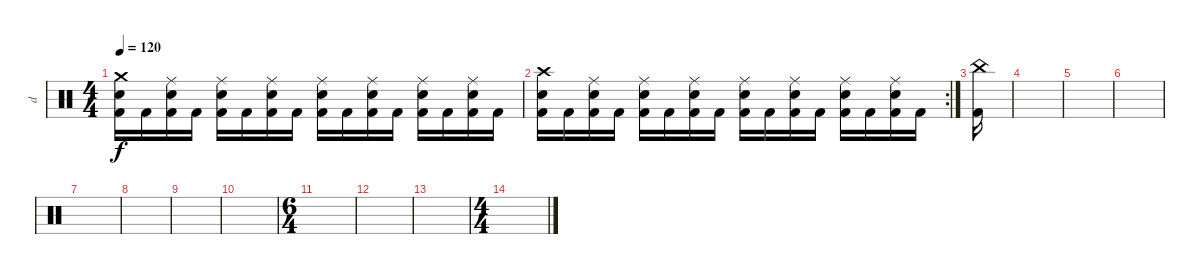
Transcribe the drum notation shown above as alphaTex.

\track ("d" "d") {instrument percussion}
\staff {score}
\articulation defaults
\ts (4 4)
\tempo 120
\clef neutral
\ks c
("Crash medium (hit)" "Electric Snare (hit)" "Kick (hit) 2").16{dy f} "Kick (hit) 2".16 ("Ride (middle)" "Electric Snare (hit)" "Kick (hit) 2").16 "Kick (hit) 2".16 ("Ride (middle)" "Electric Snare (hit)" "Kick (hit) 2").16 "Kick (hit) 2".16 ("Ride (middle)" "Electric Snare (hit)" "Kick (hit) 2").16 "Kick (hit) 2".16 ("Ride (middle)" "Electric Snare (hit)" "Kick (hit) 2").16 "Kick (hit) 2".16 ("Ride (middle)" "Electric Snare (hit)" "Kick (hit) 2").16 "Kick (hit) 2".16 ("Ride (middle)" "Electric Snare (hit)" "Kick (hit) 2").16 "Kick (hit) 2".16 ("Ride (middle)" "Electric Snare (hit)" "Kick (hit) 2").16 "Kick (hit) 2".16 |
\rc 2
("Crash high (hit)" "Electric Snare (hit)" "Kick (hit) 2").16 "Kick (hit) 2".16 ("Ride (middle)" "Electric Snare (hit)" "Kick (hit) 2").16 "Kick (hit) 2".16 ("Ride (middle)" "Electric Snare (hit)" "Kick (hit) 2").16 "Kick (hit) 2".16 ("Ride (middle)" "Electric Snare (hit)" "Kick (hit) 2").16 "Kick (hit) 2".16 ("Ride (middle)" "Electric Snare (hit)" "Kick (hit) 2").16 "Kick (hit) 2".16 ("Ride (middle)" "Electric Snare (hit)" "Kick (hit) 2").16 "Kick (hit) 2".16 ("Ride (middle)" "Electric Snare (hit)" "Kick (hit) 2").16 "Kick (hit) 2".16 ("Ride (middle)" "Electric Snare (hit)" "Kick (hit) 2").16 "Kick (hit) 2".16 |
("China (hit)" "Kick (hit) 2").16 |
|
|
|
|
|
|
|
\ts (6 4)
|
|
|
\ts (4 4)
